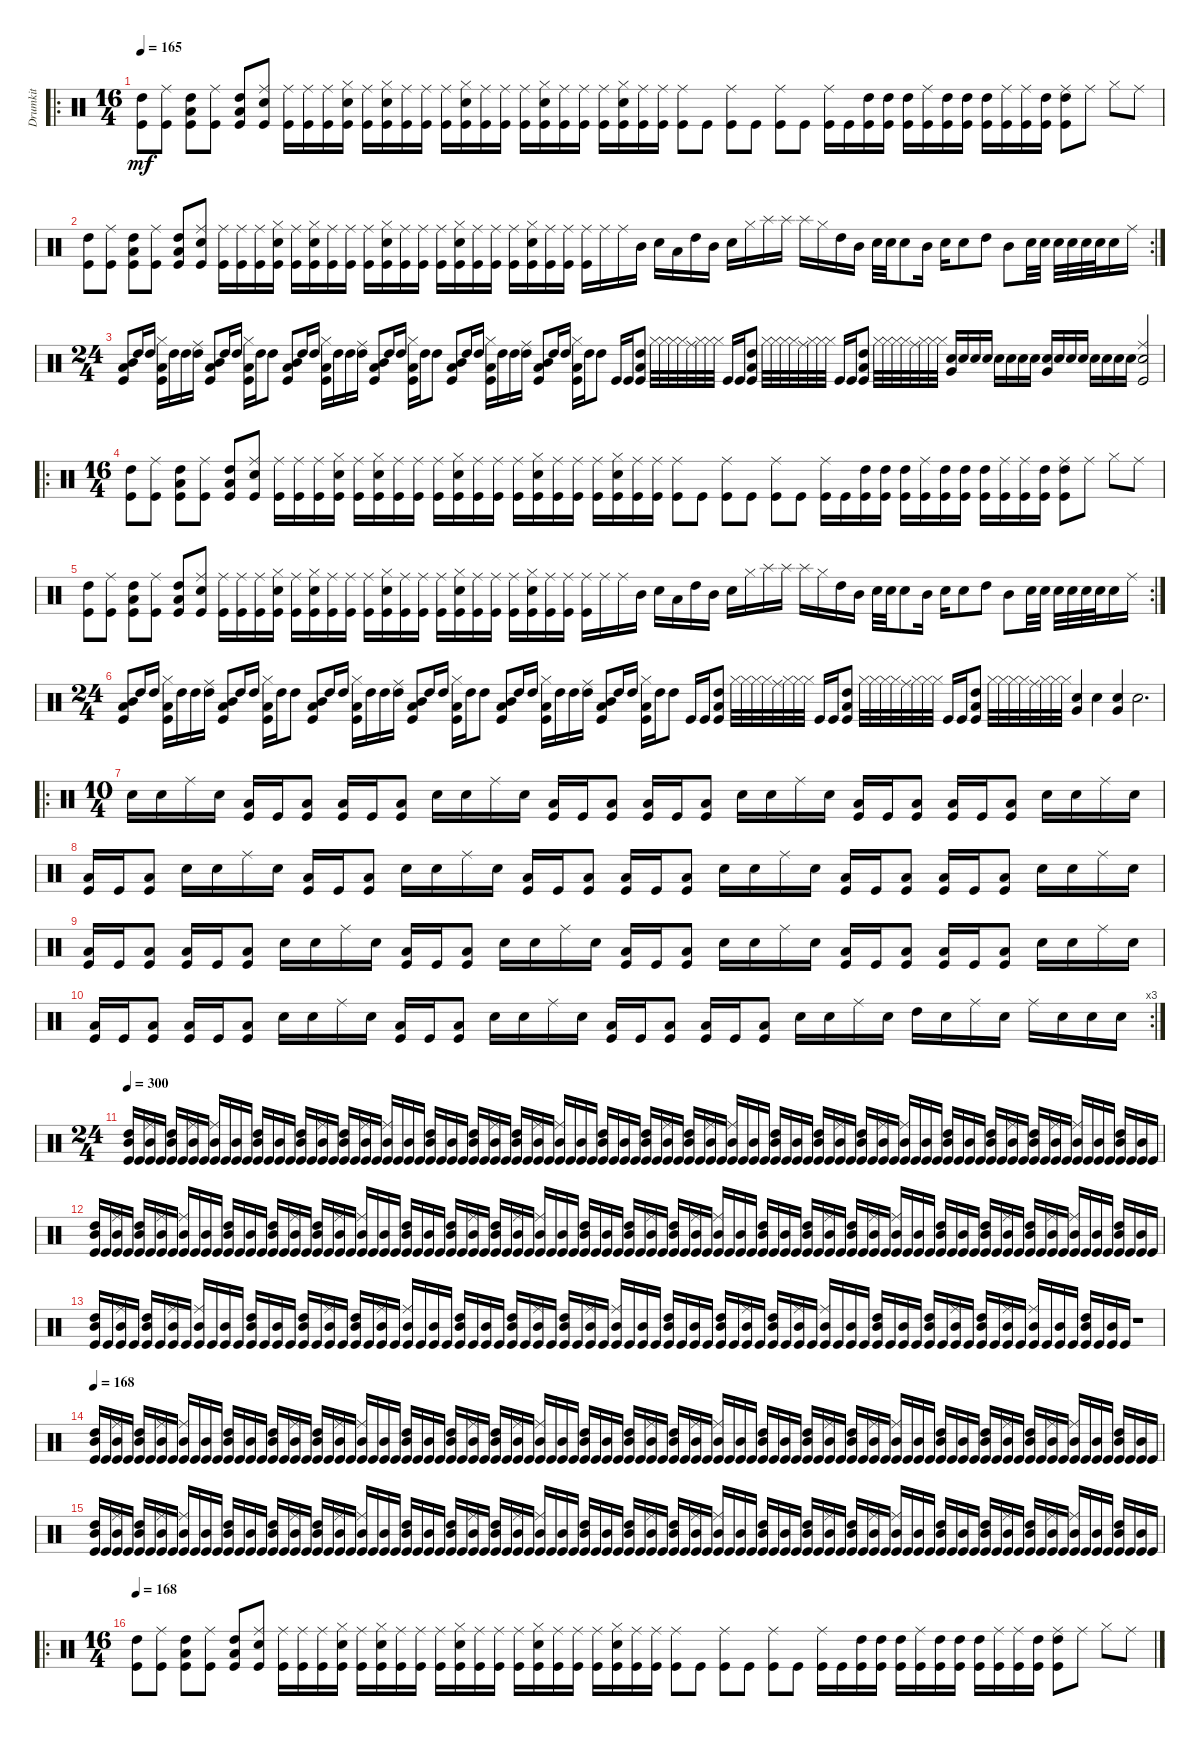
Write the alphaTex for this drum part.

\track ("Drumkit" "Drumkit") {instrument percussion}
\staff {score}
\articulation defaults
\ro
\ts (16 4)
\tempo 165
\clef neutral
\ks c
("Kick (hit)" "High Tom (hit)").8{dy mf} ("Kick (hit)" "Ride (middle)").8 ("Kick (hit)" "Low Tom (hit)" "High Tom (hit)").8 ("Kick (hit)" "Ride (middle)").8 ("Kick (hit)" "High Tom (hit)" "Low Tom (hit)").8 ("Kick (hit)" "Ride (middle)" "Snare (hit) 2").8 ("Kick (hit)" "Ride (middle)").16 ("Kick (hit)" "Ride (middle)").16 ("Kick (hit)" "Ride (middle)").16 ("Kick (hit)" "Snare (hit) 2" "Hi-Hat (closed)").16 ("Kick (hit)" "Ride (middle)").16 ("Kick (hit)" "Hi-Hat (closed)" "Snare (hit) 2").16 ("Kick (hit)" "Ride (middle)").16 ("Kick (hit)" "Ride (middle)").16 ("Kick (hit)" "Ride (middle)").16 ("Kick (hit)" "Snare (hit) 2" "Hi-Hat (closed)").16 ("Kick (hit)" "Ride (middle)").16 ("Kick (hit)" "Ride (middle)").16 ("Kick (hit)" "Ride (middle)").16 ("Kick (hit)" "Hi-Hat (closed)" "Snare (hit) 2").16 ("Kick (hit)" "Ride (middle)").16 ("Kick (hit)" "Ride (middle)").16 ("Kick (hit)" "Ride (middle)").16 ("Kick (hit)" "Hi-Hat (closed)" "Snare (hit) 2").16 ("Kick (hit)" "Ride (middle)").16 ("Kick (hit)" "Ride (middle)").16 ("Kick (hit)" "Ride (middle)").8 "Kick (hit)".8 ("Kick (hit)" "Ride (middle)").8 "Kick (hit)".8 ("Kick (hit)" "Ride (middle)").8 "Kick (hit)".8 ("Kick (hit)" "Ride (middle)").16 "Kick (hit)".16 ("Kick (hit)" "High Tom (hit)").16 ("Kick (hit)" "High Tom (hit)").16 ("Kick (hit)" "High Tom (hit)").16 ("Kick (hit)" "Ride (middle)").16 ("Kick (hit)" "High Tom (hit)").16 ("Kick (hit)" "High Tom (hit)").16 ("Kick (hit)" "High Tom (hit)").16 ("Kick (hit)" "Ride (middle)").16 ("Kick (hit)" "Ride (middle)").16 ("Kick (hit)" "High Tom (hit)").16 ("Kick (hit)" "High Tom (hit)" "Ride (middle)").8 "Ride (middle)".8 "Hi-Hat (closed)".8 "Ride (middle)".8 |
\rc 2
("Kick (hit)" "High Tom (hit)").8 ("Kick (hit)" "Ride (middle)").8 ("Kick (hit)" "Low Tom (hit)" "High Tom (hit)").8 ("Kick (hit)" "Ride (middle)").8 ("Kick (hit)" "High Tom (hit)" "Low Tom (hit)").8 ("Kick (hit)" "Ride (middle)" "Snare (hit) 2").8 ("Kick (hit)" "Ride (middle)").16 ("Kick (hit)" "Ride (middle)").16 ("Kick (hit)" "Ride (middle)").16 ("Kick (hit)" "Snare (hit) 2" "Hi-Hat (closed)").16 ("Kick (hit)" "Ride (middle)").16 ("Kick (hit)" "Hi-Hat (closed)" "Snare (hit) 2").16 ("Kick (hit)" "Ride (middle)").16 ("Kick (hit)" "Ride (middle)").16 ("Kick (hit)" "Ride (middle)").16 ("Kick (hit)" "Snare (hit) 2" "Hi-Hat (closed)").16 ("Kick (hit)" "Ride (middle)").16 ("Kick (hit)" "Ride (middle)").16 ("Kick (hit)" "Ride (middle)").16 ("Kick (hit)" "Hi-Hat (closed)" "Snare (hit) 2").16 ("Kick (hit)" "Ride (middle)").16 ("Kick (hit)" "Ride (middle)").16 ("Kick (hit)" "Ride (middle)").16 ("Kick (hit)" "Hi-Hat (closed)" "Snare (hit) 2").16 ("Kick (hit)" "Ride (middle)").16 ("Kick (hit)" "Ride (middle)").16 ("Kick (hit)" "Ride (middle)").16 "Ride (middle)".16 "Ride (middle)".16 "Mid Tom (hit)".16 "Snare (hit) 2".16 "Low Tom (hit)".16 "High Tom (hit)".16 "Mid Tom (hit)".16 "Snare (hit) 2".16 "Hi-Hat (closed)".16 "Splash (hit)".16 "Splash (hit)".16 "Splash (hit)".16 "Hi-Hat (closed)".16 "High Tom (hit)".16 "Mid Tom (hit)".16 "Snare (hit) 2".32 "Snare (hit) 2".32 "Snare (hit) 2".8 "Mid Tom (hit)".16 "Snare (hit) 2".16 "Snare (hit) 2".8 "High Tom (hit)".8 "Mid Tom (hit)".8 "Snare (hit) 2".32 "Snare (hit) 2".32 "Snare (hit) 2".32 "Snare (hit) 2".32 "Snare (hit) 2".32 "Snare (hit) 2".32 "Snare (hit) 2".16 "Ride (middle)".16 |
\ts (24 4)
("Kick (hit)" "Mid Tom (hit)" "Low Tom (hit)").8 "High Tom (hit)".16 "High Tom (hit)".16 ("Hi-Hat (closed)" "Low Tom (hit)" "Kick (hit)").16 "High Tom (hit)".16 "High Tom (hit)".16 ("High Tom (hit)" "Ride (middle)").16 ("Kick (hit)" "Mid Tom (hit)" "Low Tom (hit)").8 "High Tom (hit)".16 "High Tom (hit)".16 ("Hi-Hat (closed)" "Low Tom (hit)" "Kick (hit)").16 "High Tom (hit)".16 "High Tom (hit)".8 ("Kick (hit)" "Mid Tom (hit)" "Low Tom (hit)").8 "High Tom (hit)".16 "High Tom (hit)".16 ("Hi-Hat (closed)" "Low Tom (hit)" "Kick (hit)").16 "High Tom (hit)".16 "High Tom (hit)".16 ("High Tom (hit)" "Ride (middle)").16 ("Kick (hit)" "Mid Tom (hit)" "Low Tom (hit)").8 "High Tom (hit)".16 "High Tom (hit)".16 ("Hi-Hat (closed)" "Low Tom (hit)" "Kick (hit)").16 "High Tom (hit)".16 "High Tom (hit)".8 ("Kick (hit)" "Mid Tom (hit)" "Low Tom (hit)").8 "High Tom (hit)".16 "High Tom (hit)".16 ("Hi-Hat (closed)" "Low Tom (hit)" "Kick (hit)").16 "High Tom (hit)".16 "High Tom (hit)".16 ("High Tom (hit)" "Ride (middle)").16 ("Kick (hit)" "Mid Tom (hit)" "Low Tom (hit)").8 "High Tom (hit)".16 "High Tom (hit)".16 ("Hi-Hat (closed)" "Low Tom (hit)" "Kick (hit)").16 "High Tom (hit)".16 "High Tom (hit)".8 "Kick (hit)".16 "Kick (hit)".16 ("Kick (hit)" "Low Tom (hit)" "High Tom (hit)").8 "Hi-Hat (closed)".32 "Hi-Hat (closed)".32 "Hi-Hat (closed)".32 "Hi-Hat (closed)".32 "Ride (middle)".32 "Hi-Hat (closed)".32 "Hi-Hat (closed)".32 "Hi-Hat (closed)".32 "Kick (hit)".16 "Kick (hit)".16 ("Kick (hit)" "High Tom (hit)" "Low Tom (hit)").8 "Hi-Hat (closed)".32 "Hi-Hat (closed)".32 "Hi-Hat (closed)".32 "Hi-Hat (closed)".32 "Ride (middle)".32 "Hi-Hat (closed)".32 "Hi-Hat (closed)".32 "Hi-Hat (closed)".32 "Kick (hit)".16 "Kick (hit)".16 ("Kick (hit)" "Low Tom (hit)" "High Tom (hit)").8 "Hi-Hat (closed)".32 "Hi-Hat (closed)".32 "Hi-Hat (closed)".32 "Hi-Hat (closed)".32 "Ride (middle)".32 "Hi-Hat (closed)".32 "Hi-Hat (closed)".32 "Hi-Hat (closed)".32 ("Snare (hit) 2" "Very Low Tom (hit)").16 "Snare (hit) 2".16 "Snare (hit) 2".16 "Snare (hit) 2".16 "Snare (hit) 2".16 "Snare (hit) 2".16 "Snare (hit) 2".16 "Snare (hit) 2".16 ("Snare (hit) 2" "Very Low Tom (hit)").16 "Snare (hit) 2".16 "Snare (hit) 2".16 "Snare (hit) 2".16 "Snare (hit) 2".16 "Snare (hit) 2".16 "Snare (hit) 2".16 "Snare (hit) 2".16 ("Snare (hit) 2" "Kick (hit)" "Ride (middle)").2 |
\ro
\ts (16 4)
("Kick (hit)" "High Tom (hit)").8 ("Kick (hit)" "Ride (middle)").8 ("Kick (hit)" "Low Tom (hit)" "High Tom (hit)").8 ("Kick (hit)" "Ride (middle)").8 ("Kick (hit)" "High Tom (hit)" "Low Tom (hit)").8 ("Kick (hit)" "Ride (middle)" "Snare (hit) 2").8 ("Kick (hit)" "Ride (middle)").16 ("Kick (hit)" "Ride (middle)").16 ("Kick (hit)" "Ride (middle)").16 ("Kick (hit)" "Snare (hit) 2" "Hi-Hat (closed)").16 ("Kick (hit)" "Ride (middle)").16 ("Kick (hit)" "Hi-Hat (closed)" "Snare (hit) 2").16 ("Kick (hit)" "Ride (middle)").16 ("Kick (hit)" "Ride (middle)").16 ("Kick (hit)" "Ride (middle)").16 ("Kick (hit)" "Snare (hit) 2" "Hi-Hat (closed)").16 ("Kick (hit)" "Ride (middle)").16 ("Kick (hit)" "Ride (middle)").16 ("Kick (hit)" "Ride (middle)").16 ("Kick (hit)" "Hi-Hat (closed)" "Snare (hit) 2").16 ("Kick (hit)" "Ride (middle)").16 ("Kick (hit)" "Ride (middle)").16 ("Kick (hit)" "Ride (middle)").16 ("Kick (hit)" "Hi-Hat (closed)" "Snare (hit) 2").16 ("Kick (hit)" "Ride (middle)").16 ("Kick (hit)" "Ride (middle)").16 ("Kick (hit)" "Ride (middle)").8 "Kick (hit)".8 ("Kick (hit)" "Ride (middle)").8 "Kick (hit)".8 ("Kick (hit)" "Ride (middle)").8 "Kick (hit)".8 ("Kick (hit)" "Ride (middle)").16 "Kick (hit)".16 ("Kick (hit)" "High Tom (hit)").16 ("Kick (hit)" "High Tom (hit)").16 ("Kick (hit)" "High Tom (hit)").16 ("Kick (hit)" "Ride (middle)").16 ("Kick (hit)" "High Tom (hit)").16 ("Kick (hit)" "High Tom (hit)").16 ("Kick (hit)" "High Tom (hit)").16 ("Kick (hit)" "Ride (middle)").16 ("Kick (hit)" "Ride (middle)").16 ("Kick (hit)" "High Tom (hit)").16 ("Kick (hit)" "High Tom (hit)" "Ride (middle)").8 "Ride (middle)".8 "Hi-Hat (closed)".8 "Ride (middle)".8 |
\rc 2
("Kick (hit)" "High Tom (hit)").8 ("Kick (hit)" "Ride (middle)").8 ("Kick (hit)" "Low Tom (hit)" "High Tom (hit)").8 ("Kick (hit)" "Ride (middle)").8 ("Kick (hit)" "High Tom (hit)" "Low Tom (hit)").8 ("Kick (hit)" "Ride (middle)" "Snare (hit) 2").8 ("Kick (hit)" "Ride (middle)").16 ("Kick (hit)" "Ride (middle)").16 ("Kick (hit)" "Ride (middle)").16 ("Kick (hit)" "Snare (hit) 2" "Hi-Hat (closed)").16 ("Kick (hit)" "Ride (middle)").16 ("Kick (hit)" "Hi-Hat (closed)" "Snare (hit) 2").16 ("Kick (hit)" "Ride (middle)").16 ("Kick (hit)" "Ride (middle)").16 ("Kick (hit)" "Ride (middle)").16 ("Kick (hit)" "Snare (hit) 2" "Hi-Hat (closed)").16 ("Kick (hit)" "Ride (middle)").16 ("Kick (hit)" "Ride (middle)").16 ("Kick (hit)" "Ride (middle)").16 ("Kick (hit)" "Hi-Hat (closed)" "Snare (hit) 2").16 ("Kick (hit)" "Ride (middle)").16 ("Kick (hit)" "Ride (middle)").16 ("Kick (hit)" "Ride (middle)").16 ("Kick (hit)" "Hi-Hat (closed)" "Snare (hit) 2").16 ("Kick (hit)" "Ride (middle)").16 ("Kick (hit)" "Ride (middle)").16 ("Kick (hit)" "Ride (middle)").16 "Ride (middle)".16 "Ride (middle)".16 "Mid Tom (hit)".16 "Snare (hit) 2".16 "Low Tom (hit)".16 "High Tom (hit)".16 "Mid Tom (hit)".16 "Snare (hit) 2".16 "Hi-Hat (closed)".16 "Splash (hit)".16 "Splash (hit)".16 "Splash (hit)".16 "Hi-Hat (closed)".16 "High Tom (hit)".16 "Mid Tom (hit)".16 "Snare (hit) 2".32 "Snare (hit) 2".32 "Snare (hit) 2".8 "Mid Tom (hit)".16 "Snare (hit) 2".16 "Snare (hit) 2".8 "High Tom (hit)".8 "Mid Tom (hit)".8 "Snare (hit) 2".32 "Snare (hit) 2".32 "Snare (hit) 2".32 "Snare (hit) 2".32 "Snare (hit) 2".32 "Snare (hit) 2".32 "Snare (hit) 2".16 "Ride (middle)".16 |
\ts (24 4)
("Kick (hit)" "Mid Tom (hit)" "Low Tom (hit)").8 "High Tom (hit)".16 "High Tom (hit)".16 ("Hi-Hat (closed)" "Low Tom (hit)" "Kick (hit)").16 "High Tom (hit)".16 "High Tom (hit)".16 ("High Tom (hit)" "Ride (middle)").16 ("Kick (hit)" "Mid Tom (hit)" "Low Tom (hit)").8 "High Tom (hit)".16 "High Tom (hit)".16 ("Hi-Hat (closed)" "Low Tom (hit)" "Kick (hit)").16 "High Tom (hit)".16 "High Tom (hit)".8 ("Kick (hit)" "Mid Tom (hit)" "Low Tom (hit)").8 "High Tom (hit)".16 "High Tom (hit)".16 ("Hi-Hat (closed)" "Low Tom (hit)" "Kick (hit)").16 "High Tom (hit)".16 "High Tom (hit)".16 ("High Tom (hit)" "Ride (middle)").16 ("Kick (hit)" "Mid Tom (hit)" "Low Tom (hit)").8 "High Tom (hit)".16 "High Tom (hit)".16 ("Hi-Hat (closed)" "Low Tom (hit)" "Kick (hit)").16 "High Tom (hit)".16 "High Tom (hit)".8 ("Kick (hit)" "Mid Tom (hit)" "Low Tom (hit)").8 "High Tom (hit)".16 "High Tom (hit)".16 ("Hi-Hat (closed)" "Low Tom (hit)" "Kick (hit)").16 "High Tom (hit)".16 "High Tom (hit)".16 ("High Tom (hit)" "Ride (middle)").16 ("Kick (hit)" "Mid Tom (hit)" "Low Tom (hit)").8 "High Tom (hit)".16 "High Tom (hit)".16 ("Hi-Hat (closed)" "Low Tom (hit)" "Kick (hit)").16 "High Tom (hit)".16 "High Tom (hit)".8 "Kick (hit)".16 "Kick (hit)".16 ("Kick (hit)" "Low Tom (hit)" "High Tom (hit)").8 "Hi-Hat (closed)".32 "Hi-Hat (closed)".32 "Hi-Hat (closed)".32 "Hi-Hat (closed)".32 "Ride (middle)".32 "Hi-Hat (closed)".32 "Hi-Hat (closed)".32 "Hi-Hat (closed)".32 "Kick (hit)".16 "Kick (hit)".16 ("Kick (hit)" "High Tom (hit)" "Low Tom (hit)").8 "Hi-Hat (closed)".32 "Hi-Hat (closed)".32 "Hi-Hat (closed)".32 "Hi-Hat (closed)".32 "Ride (middle)".32 "Hi-Hat (closed)".32 "Hi-Hat (closed)".32 "Hi-Hat (closed)".32 "Kick (hit)".16 "Kick (hit)".16 ("Kick (hit)" "High Tom (hit)" "Low Tom (hit)").8 "Hi-Hat (closed)".32 "Hi-Hat (closed)".32 "Hi-Hat (closed)".32 "Hi-Hat (closed)".32 "Ride (middle)".32 "Hi-Hat (closed)".32 "Hi-Hat (closed)".32 "Hi-Hat (closed)".32 ("Snare (hit) 2" "Very Low Tom (hit)").4 "Snare (hit) 2".4 ("Snare (hit) 2" "Very Low Tom (hit)").4 "Snare (hit) 2".2{d} |
\ro
\ts (10 4)
"Snare (hit) 2".16 "Snare (hit) 2".16 "Ride (middle)".16 "Snare (hit) 2".16 ("Kick (hit)" "Low Tom (hit)").16 "Kick (hit)".16 ("Kick (hit)" "Low Tom (hit)").8 ("Kick (hit)" "Low Tom (hit)").16 "Kick (hit)".16 ("Kick (hit)" "Low Tom (hit)").8 "Snare (hit) 2".16 "Snare (hit) 2".16 "Ride (middle)".16 "Snare (hit) 2".16 ("Kick (hit)" "Low Tom (hit)").16 "Kick (hit)".16 ("Kick (hit)" "Low Tom (hit)").8 ("Kick (hit)" "Low Tom (hit)").16 "Kick (hit)".16 ("Kick (hit)" "Low Tom (hit)").8 "Snare (hit) 2".16 "Snare (hit) 2".16 "Ride (middle)".16 "Snare (hit) 2".16 ("Kick (hit)" "Low Tom (hit)").16 "Kick (hit)".16 ("Kick (hit)" "Low Tom (hit)").8 ("Kick (hit)" "Low Tom (hit)").16 "Kick (hit)".16 ("Kick (hit)" "Low Tom (hit)").8 "Snare (hit) 2".16 "Snare (hit) 2".16 "Ride (middle)".16 "Snare (hit) 2".16 |
("Kick (hit)" "Low Tom (hit)").16 "Kick (hit)".16 ("Kick (hit)" "Low Tom (hit)").8 "Snare (hit) 2".16 "Snare (hit) 2".16 "Ride (middle)".16 "Snare (hit) 2".16 ("Kick (hit)" "Low Tom (hit)").16 "Kick (hit)".16 ("Kick (hit)" "Low Tom (hit)").8 "Snare (hit) 2".16 "Snare (hit) 2".16 "Ride (middle)".16 "Snare (hit) 2".16 ("Kick (hit)" "Low Tom (hit)").16 "Kick (hit)".16 ("Kick (hit)" "Low Tom (hit)").8 ("Kick (hit)" "Low Tom (hit)").16 "Kick (hit)".16 ("Kick (hit)" "Low Tom (hit)").8 "Snare (hit) 2".16 "Snare (hit) 2".16 "Ride (middle)".16 "Snare (hit) 2".16 ("Kick (hit)" "Low Tom (hit)").16 "Kick (hit)".16 ("Kick (hit)" "Low Tom (hit)").8 ("Kick (hit)" "Low Tom (hit)").16 "Kick (hit)".16 ("Kick (hit)" "Low Tom (hit)").8 "Snare (hit) 2".16 "Snare (hit) 2".16 "Ride (middle)".16 "Snare (hit) 2".16 |
("Kick (hit)" "Low Tom (hit)").16 "Kick (hit)".16 ("Kick (hit)" "Low Tom (hit)").8 ("Kick (hit)" "Low Tom (hit)").16 "Kick (hit)".16 ("Kick (hit)" "Low Tom (hit)").8 "Snare (hit) 2".16 "Snare (hit) 2".16 "Ride (middle)".16 "Snare (hit) 2".16 ("Kick (hit)" "Low Tom (hit)").16 "Kick (hit)".16 ("Kick (hit)" "Low Tom (hit)").8 "Snare (hit) 2".16 "Snare (hit) 2".16 "Ride (middle)".16 "Snare (hit) 2".16 ("Kick (hit)" "Low Tom (hit)").16 "Kick (hit)".16 ("Kick (hit)" "Low Tom (hit)").8 "Snare (hit) 2".16 "Snare (hit) 2".16 "Ride (middle)".16 "Snare (hit) 2".16 ("Kick (hit)" "Low Tom (hit)").16 "Kick (hit)".16 ("Kick (hit)" "Low Tom (hit)").8 ("Kick (hit)" "Low Tom (hit)").16 "Kick (hit)".16 ("Kick (hit)" "Low Tom (hit)").8 "Snare (hit) 2".16 "Snare (hit) 2".16 "Ride (middle)".16 "Snare (hit) 2".16 |
\rc 3
("Kick (hit)" "Low Tom (hit)").16 "Kick (hit)".16 ("Kick (hit)" "Low Tom (hit)").8 ("Kick (hit)" "Low Tom (hit)").16 "Kick (hit)".16 ("Kick (hit)" "Low Tom (hit)").8 "Snare (hit) 2".16 "Snare (hit) 2".16 "Ride (middle)".16 "Snare (hit) 2".16 ("Kick (hit)" "Low Tom (hit)").16 "Kick (hit)".16 ("Kick (hit)" "Low Tom (hit)").8 "Snare (hit) 2".16 "Snare (hit) 2".16 "Ride (middle)".16 "Snare (hit) 2".16 ("Kick (hit)" "Low Tom (hit)").16 "Kick (hit)".16 ("Kick (hit)" "Low Tom (hit)").8 ("Kick (hit)" "Low Tom (hit)").16 "Kick (hit)".16 ("Kick (hit)" "Low Tom (hit)").8 "Snare (hit) 2".16 "Snare (hit) 2".16 "Ride (middle)".16 "Snare (hit) 2".16 "High Tom (hit)".16 "Snare (hit) 2".16 "Ride (middle)".16 "Snare (hit) 2".16 "Ride (middle)".16 "Snare (hit) 2".16 "Snare (hit) 2".16 "Snare (hit) 2".16 |
\ts (24 4)
\tempo 300
("Kick (hit)" "High Tom (hit)" "Mid Tom (hit)").16 "Kick (hit)".16 ("Kick (hit)" "Mid Tom (hit)" "Ride (middle)").16 "Kick (hit)".16 ("Kick (hit)" "Mid Tom (hit)" "High Tom (hit)").16 "Kick (hit)".16 ("Kick (hit)" "Mid Tom (hit)" "Ride (middle)").16 "Kick (hit)".16 ("Kick (hit)" "Ride (middle)" "Mid Tom (hit)").16 "Kick (hit)".16 ("Kick (hit)" "Mid Tom (hit)").16 "Kick (hit)".16 ("Kick (hit)" "Mid Tom (hit)" "High Tom (hit)").16 "Kick (hit)".16 ("Kick (hit)" "Mid Tom (hit)").16 "Kick (hit)".16 ("Kick (hit)" "High Tom (hit)" "Mid Tom (hit)").16 "Kick (hit)".16 ("Kick (hit)" "Mid Tom (hit)" "Ride (middle)").16 "Kick (hit)".16 ("Kick (hit)" "Mid Tom (hit)" "High Tom (hit)").16 "Kick (hit)".16 ("Kick (hit)" "Mid Tom (hit)" "Ride (middle)").16 "Kick (hit)".16 ("Kick (hit)" "Ride (middle)" "Mid Tom (hit)").16 "Kick (hit)".16 ("Kick (hit)" "Mid Tom (hit)").16 "Kick (hit)".16 ("Kick (hit)" "Mid Tom (hit)" "High Tom (hit)").16 "Kick (hit)".16 ("Kick (hit)" "Mid Tom (hit)").16 "Kick (hit)".16 ("Kick (hit)" "High Tom (hit)" "Mid Tom (hit)").16 "Kick (hit)".16 ("Kick (hit)" "Mid Tom (hit)" "Ride (middle)").16 "Kick (hit)".16 ("Kick (hit)" "Mid Tom (hit)" "High Tom (hit)").16 "Kick (hit)".16 ("Kick (hit)" "Mid Tom (hit)" "Ride (middle)").16 "Kick (hit)".16 ("Kick (hit)" "Ride (middle)" "Mid Tom (hit)").16 "Kick (hit)".16 ("Kick (hit)" "Mid Tom (hit)").16 "Kick (hit)".16 ("Kick (hit)" "Mid Tom (hit)" "High Tom (hit)").16 "Kick (hit)".16 ("Kick (hit)" "Mid Tom (hit)").16 "Kick (hit)".16 ("Kick (hit)" "High Tom (hit)" "Mid Tom (hit)").16 "Kick (hit)".16 ("Kick (hit)" "Mid Tom (hit)" "Ride (middle)").16 "Kick (hit)".16 ("Kick (hit)" "Mid Tom (hit)" "High Tom (hit)").16 "Kick (hit)".16 ("Kick (hit)" "Mid Tom (hit)" "Ride (middle)").16 "Kick (hit)".16 ("Kick (hit)" "Ride (middle)" "Mid Tom (hit)").16 "Kick (hit)".16 ("Kick (hit)" "Mid Tom (hit)").16 "Kick (hit)".16 ("Kick (hit)" "Mid Tom (hit)" "High Tom (hit)").16 "Kick (hit)".16 ("Kick (hit)" "Mid Tom (hit)").16 "Kick (hit)".16 ("Kick (hit)" "High Tom (hit)" "Mid Tom (hit)").16 "Kick (hit)".16 ("Kick (hit)" "Mid Tom (hit)" "Ride (middle)").16 "Kick (hit)".16 ("Kick (hit)" "Mid Tom (hit)" "High Tom (hit)").16 "Kick (hit)".16 ("Kick (hit)" "Mid Tom (hit)" "Ride (middle)").16 "Kick (hit)".16 ("Kick (hit)" "Ride (middle)" "Mid Tom (hit)").16 "Kick (hit)".16 ("Kick (hit)" "Mid Tom (hit)").16 "Kick (hit)".16 ("Kick (hit)" "Mid Tom (hit)" "High Tom (hit)").16 "Kick (hit)".16 ("Kick (hit)" "Mid Tom (hit)").16 "Kick (hit)".16 ("Kick (hit)" "High Tom (hit)" "Mid Tom (hit)").16 "Kick (hit)".16 ("Kick (hit)" "Mid Tom (hit)" "Ride (middle)").16 "Kick (hit)".16 ("Kick (hit)" "Mid Tom (hit)" "High Tom (hit)").16 "Kick (hit)".16 ("Kick (hit)" "Mid Tom (hit)" "Ride (middle)").16 "Kick (hit)".16 ("Kick (hit)" "Ride (middle)" "Mid Tom (hit)").16 "Kick (hit)".16 ("Kick (hit)" "Mid Tom (hit)").16 "Kick (hit)".16 ("Kick (hit)" "Mid Tom (hit)" "High Tom (hit)").16 "Kick (hit)".16 ("Kick (hit)" "Mid Tom (hit)").16 "Kick (hit)".16 |
("Kick (hit)" "High Tom (hit)" "Mid Tom (hit)").16 "Kick (hit)".16 ("Kick (hit)" "Mid Tom (hit)" "Ride (middle)").16 "Kick (hit)".16 ("Kick (hit)" "Mid Tom (hit)" "High Tom (hit)").16 "Kick (hit)".16 ("Kick (hit)" "Mid Tom (hit)" "Ride (middle)").16 "Kick (hit)".16 ("Kick (hit)" "Ride (middle)" "Mid Tom (hit)").16 "Kick (hit)".16 ("Kick (hit)" "Mid Tom (hit)").16 "Kick (hit)".16 ("Kick (hit)" "Mid Tom (hit)" "High Tom (hit)").16 "Kick (hit)".16 ("Kick (hit)" "Mid Tom (hit)").16 "Kick (hit)".16 ("Kick (hit)" "High Tom (hit)" "Mid Tom (hit)").16 "Kick (hit)".16 ("Kick (hit)" "Mid Tom (hit)" "Ride (middle)").16 "Kick (hit)".16 ("Kick (hit)" "Mid Tom (hit)" "High Tom (hit)").16 "Kick (hit)".16 ("Kick (hit)" "Mid Tom (hit)" "Ride (middle)").16 "Kick (hit)".16 ("Kick (hit)" "Ride (middle)" "Mid Tom (hit)").16 "Kick (hit)".16 ("Kick (hit)" "Mid Tom (hit)").16 "Kick (hit)".16 ("Kick (hit)" "Mid Tom (hit)" "High Tom (hit)").16 "Kick (hit)".16 ("Kick (hit)" "Mid Tom (hit)").16 "Kick (hit)".16 ("Kick (hit)" "High Tom (hit)" "Mid Tom (hit)").16 "Kick (hit)".16 ("Kick (hit)" "Mid Tom (hit)" "Ride (middle)").16 "Kick (hit)".16 ("Kick (hit)" "Mid Tom (hit)" "High Tom (hit)").16 "Kick (hit)".16 ("Kick (hit)" "Mid Tom (hit)" "Ride (middle)").16 "Kick (hit)".16 ("Kick (hit)" "Ride (middle)" "Mid Tom (hit)").16 "Kick (hit)".16 ("Kick (hit)" "Mid Tom (hit)").16 "Kick (hit)".16 ("Kick (hit)" "Mid Tom (hit)" "High Tom (hit)").16 "Kick (hit)".16 ("Kick (hit)" "Mid Tom (hit)").16 "Kick (hit)".16 ("Kick (hit)" "High Tom (hit)" "Mid Tom (hit)").16 "Kick (hit)".16 ("Kick (hit)" "Mid Tom (hit)" "Ride (middle)").16 "Kick (hit)".16 ("Kick (hit)" "Mid Tom (hit)" "High Tom (hit)").16 "Kick (hit)".16 ("Kick (hit)" "Mid Tom (hit)" "Ride (middle)").16 "Kick (hit)".16 ("Kick (hit)" "Ride (middle)" "Mid Tom (hit)").16 "Kick (hit)".16 ("Kick (hit)" "Mid Tom (hit)").16 "Kick (hit)".16 ("Kick (hit)" "Mid Tom (hit)" "High Tom (hit)").16 "Kick (hit)".16 ("Kick (hit)" "Mid Tom (hit)").16 "Kick (hit)".16 ("Kick (hit)" "High Tom (hit)" "Mid Tom (hit)").16 "Kick (hit)".16 ("Kick (hit)" "Mid Tom (hit)" "Ride (middle)").16 "Kick (hit)".16 ("Kick (hit)" "Mid Tom (hit)" "High Tom (hit)").16 "Kick (hit)".16 ("Kick (hit)" "Mid Tom (hit)" "Ride (middle)").16 "Kick (hit)".16 ("Kick (hit)" "Ride (middle)" "Mid Tom (hit)").16 "Kick (hit)".16 ("Kick (hit)" "Mid Tom (hit)").16 "Kick (hit)".16 ("Kick (hit)" "Mid Tom (hit)" "High Tom (hit)").16 "Kick (hit)".16 ("Kick (hit)" "Mid Tom (hit)").16 "Kick (hit)".16 ("Kick (hit)" "High Tom (hit)" "Mid Tom (hit)").16 "Kick (hit)".16 ("Kick (hit)" "Mid Tom (hit)" "Ride (middle)").16 "Kick (hit)".16 ("Kick (hit)" "Mid Tom (hit)" "High Tom (hit)").16 "Kick (hit)".16 ("Kick (hit)" "Mid Tom (hit)" "Ride (middle)").16 "Kick (hit)".16 ("Kick (hit)" "Ride (middle)" "Mid Tom (hit)").16 "Kick (hit)".16 ("Kick (hit)" "Mid Tom (hit)").16 "Kick (hit)".16 ("Kick (hit)" "Mid Tom (hit)" "High Tom (hit)").16 "Kick (hit)".16 ("Kick (hit)" "Mid Tom (hit)").16 "Kick (hit)".16 |
("Kick (hit)" "High Tom (hit)" "Mid Tom (hit)").16 "Kick (hit)".16 ("Kick (hit)" "Mid Tom (hit)" "Ride (middle)").16 "Kick (hit)".16 ("Kick (hit)" "Mid Tom (hit)" "High Tom (hit)").16 "Kick (hit)".16 ("Kick (hit)" "Mid Tom (hit)" "Ride (middle)").16 "Kick (hit)".16 ("Kick (hit)" "Ride (middle)" "Mid Tom (hit)").16 "Kick (hit)".16 ("Kick (hit)" "Mid Tom (hit)").16 "Kick (hit)".16 ("Kick (hit)" "Mid Tom (hit)" "High Tom (hit)").16 "Kick (hit)".16 ("Kick (hit)" "Mid Tom (hit)").16 "Kick (hit)".16 ("Kick (hit)" "High Tom (hit)" "Mid Tom (hit)").16 "Kick (hit)".16 ("Kick (hit)" "Mid Tom (hit)" "Ride (middle)").16 "Kick (hit)".16 ("Kick (hit)" "Mid Tom (hit)" "High Tom (hit)").16 "Kick (hit)".16 ("Kick (hit)" "Mid Tom (hit)" "Ride (middle)").16 "Kick (hit)".16 ("Kick (hit)" "Ride (middle)" "Mid Tom (hit)").16 "Kick (hit)".16 ("Kick (hit)" "Mid Tom (hit)").16 "Kick (hit)".16 ("Kick (hit)" "Mid Tom (hit)" "High Tom (hit)").16 "Kick (hit)".16 ("Kick (hit)" "Mid Tom (hit)").16 "Kick (hit)".16 ("Kick (hit)" "High Tom (hit)" "Mid Tom (hit)").16 "Kick (hit)".16 ("Kick (hit)" "Mid Tom (hit)" "Ride (middle)").16 "Kick (hit)".16 ("Kick (hit)" "Mid Tom (hit)" "High Tom (hit)").16 "Kick (hit)".16 ("Kick (hit)" "Mid Tom (hit)" "Ride (middle)").16 "Kick (hit)".16 ("Kick (hit)" "Ride (middle)" "Mid Tom (hit)").16 "Kick (hit)".16 ("Kick (hit)" "Mid Tom (hit)").16 "Kick (hit)".16 ("Kick (hit)" "Mid Tom (hit)" "High Tom (hit)").16 "Kick (hit)".16 ("Kick (hit)" "Mid Tom (hit)").16 "Kick (hit)".16 ("Kick (hit)" "High Tom (hit)" "Mid Tom (hit)").16 "Kick (hit)".16 ("Kick (hit)" "Mid Tom (hit)" "Ride (middle)").16 "Kick (hit)".16 ("Kick (hit)" "Mid Tom (hit)" "High Tom (hit)").16 "Kick (hit)".16 ("Kick (hit)" "Mid Tom (hit)" "Ride (middle)").16 "Kick (hit)".16 ("Kick (hit)" "Ride (middle)" "Mid Tom (hit)").16 "Kick (hit)".16 ("Kick (hit)" "Mid Tom (hit)").16 "Kick (hit)".16 ("Kick (hit)" "Mid Tom (hit)" "High Tom (hit)").16 "Kick (hit)".16 ("Kick (hit)" "Mid Tom (hit)").16 "Kick (hit)".16 ("Kick (hit)" "High Tom (hit)" "Mid Tom (hit)").16 "Kick (hit)".16 ("Kick (hit)" "Mid Tom (hit)" "Ride (middle)").16 "Kick (hit)".16 ("Kick (hit)" "Mid Tom (hit)" "High Tom (hit)").16 "Kick (hit)".16 ("Kick (hit)" "Mid Tom (hit)" "Ride (middle)").16 "Kick (hit)".16 ("Kick (hit)" "Ride (middle)" "Mid Tom (hit)").16 "Kick (hit)".16 ("Kick (hit)" "Mid Tom (hit)").16 "Kick (hit)".16 ("Kick (hit)" "Mid Tom (hit)" "High Tom (hit)").16 "Kick (hit)".16 ("Kick (hit)" "Mid Tom (hit)").16 "Kick (hit)".16 r.1 |
\tempo 168
("Kick (hit)" "High Tom (hit)" "Mid Tom (hit)").16 "Kick (hit)".16 ("Kick (hit)" "Mid Tom (hit)" "Ride (middle)").16 "Kick (hit)".16 ("Kick (hit)" "Mid Tom (hit)" "High Tom (hit)").16 "Kick (hit)".16 ("Kick (hit)" "Mid Tom (hit)" "Ride (middle)").16 "Kick (hit)".16 ("Kick (hit)" "Ride (middle)" "Mid Tom (hit)").16 "Kick (hit)".16 ("Kick (hit)" "Mid Tom (hit)").16 "Kick (hit)".16 ("Kick (hit)" "Mid Tom (hit)" "High Tom (hit)").16 "Kick (hit)".16 ("Kick (hit)" "Mid Tom (hit)").16 "Kick (hit)".16 ("Kick (hit)" "High Tom (hit)" "Mid Tom (hit)").16 "Kick (hit)".16 ("Kick (hit)" "Mid Tom (hit)" "Ride (middle)").16 "Kick (hit)".16 ("Kick (hit)" "Mid Tom (hit)" "High Tom (hit)").16 "Kick (hit)".16 ("Kick (hit)" "Mid Tom (hit)" "Ride (middle)").16 "Kick (hit)".16 ("Kick (hit)" "Ride (middle)" "Mid Tom (hit)").16 "Kick (hit)".16 ("Kick (hit)" "Mid Tom (hit)").16 "Kick (hit)".16 ("Kick (hit)" "Mid Tom (hit)" "High Tom (hit)").16 "Kick (hit)".16 ("Kick (hit)" "Mid Tom (hit)").16 "Kick (hit)".16 ("Kick (hit)" "High Tom (hit)" "Mid Tom (hit)").16 "Kick (hit)".16 ("Kick (hit)" "Mid Tom (hit)" "Ride (middle)").16 "Kick (hit)".16 ("Kick (hit)" "Mid Tom (hit)" "High Tom (hit)").16 "Kick (hit)".16 ("Kick (hit)" "Mid Tom (hit)" "Ride (middle)").16 "Kick (hit)".16 ("Kick (hit)" "Ride (middle)" "Mid Tom (hit)").16 "Kick (hit)".16 ("Kick (hit)" "Mid Tom (hit)").16 "Kick (hit)".16 ("Kick (hit)" "Mid Tom (hit)" "High Tom (hit)").16 "Kick (hit)".16 ("Kick (hit)" "Mid Tom (hit)").16 "Kick (hit)".16 ("Kick (hit)" "High Tom (hit)" "Mid Tom (hit)").16 "Kick (hit)".16 ("Kick (hit)" "Mid Tom (hit)" "Ride (middle)").16 "Kick (hit)".16 ("Kick (hit)" "Mid Tom (hit)" "High Tom (hit)").16 "Kick (hit)".16 ("Kick (hit)" "Mid Tom (hit)" "Ride (middle)").16 "Kick (hit)".16 ("Kick (hit)" "Ride (middle)" "Mid Tom (hit)").16 "Kick (hit)".16 ("Kick (hit)" "Mid Tom (hit)").16 "Kick (hit)".16 ("Kick (hit)" "Mid Tom (hit)" "High Tom (hit)").16 "Kick (hit)".16 ("Kick (hit)" "Mid Tom (hit)").16 "Kick (hit)".16 ("Kick (hit)" "High Tom (hit)" "Mid Tom (hit)").16 "Kick (hit)".16 ("Kick (hit)" "Mid Tom (hit)" "Ride (middle)").16 "Kick (hit)".16 ("Kick (hit)" "Mid Tom (hit)" "High Tom (hit)").16 "Kick (hit)".16 ("Kick (hit)" "Mid Tom (hit)" "Ride (middle)").16 "Kick (hit)".16 ("Kick (hit)" "Ride (middle)" "Mid Tom (hit)").16 "Kick (hit)".16 ("Kick (hit)" "Mid Tom (hit)").16 "Kick (hit)".16 ("Kick (hit)" "Mid Tom (hit)" "High Tom (hit)").16 "Kick (hit)".16 ("Kick (hit)" "Mid Tom (hit)").16 "Kick (hit)".16 ("Kick (hit)" "High Tom (hit)" "Mid Tom (hit)").16 "Kick (hit)".16 ("Kick (hit)" "Mid Tom (hit)" "Ride (middle)").16 "Kick (hit)".16 ("Kick (hit)" "Mid Tom (hit)" "High Tom (hit)").16 "Kick (hit)".16 ("Kick (hit)" "Mid Tom (hit)" "Ride (middle)").16 "Kick (hit)".16 ("Kick (hit)" "Ride (middle)" "Mid Tom (hit)").16 "Kick (hit)".16 ("Kick (hit)" "Mid Tom (hit)").16 "Kick (hit)".16 ("Kick (hit)" "Mid Tom (hit)" "High Tom (hit)").16 "Kick (hit)".16 ("Kick (hit)" "Mid Tom (hit)").16 "Kick (hit)".16 |
("Kick (hit)" "High Tom (hit)" "Mid Tom (hit)").16 "Kick (hit)".16 ("Kick (hit)" "Mid Tom (hit)" "Ride (middle)").16 "Kick (hit)".16 ("Kick (hit)" "Mid Tom (hit)" "High Tom (hit)").16 "Kick (hit)".16 ("Kick (hit)" "Mid Tom (hit)" "Ride (middle)").16 "Kick (hit)".16 ("Kick (hit)" "Ride (middle)" "Mid Tom (hit)").16 "Kick (hit)".16 ("Kick (hit)" "Mid Tom (hit)").16 "Kick (hit)".16 ("Kick (hit)" "Mid Tom (hit)" "High Tom (hit)").16 "Kick (hit)".16 ("Kick (hit)" "Mid Tom (hit)").16 "Kick (hit)".16 ("Kick (hit)" "High Tom (hit)" "Mid Tom (hit)").16 "Kick (hit)".16 ("Kick (hit)" "Mid Tom (hit)" "Ride (middle)").16 "Kick (hit)".16 ("Kick (hit)" "Mid Tom (hit)" "High Tom (hit)").16 "Kick (hit)".16 ("Kick (hit)" "Mid Tom (hit)" "Ride (middle)").16 "Kick (hit)".16 ("Kick (hit)" "Ride (middle)" "Mid Tom (hit)").16 "Kick (hit)".16 ("Kick (hit)" "Mid Tom (hit)").16 "Kick (hit)".16 ("Kick (hit)" "Mid Tom (hit)" "High Tom (hit)").16 "Kick (hit)".16 ("Kick (hit)" "Mid Tom (hit)").16 "Kick (hit)".16 ("Kick (hit)" "High Tom (hit)" "Mid Tom (hit)").16 "Kick (hit)".16 ("Kick (hit)" "Mid Tom (hit)" "Ride (middle)").16 "Kick (hit)".16 ("Kick (hit)" "Mid Tom (hit)" "High Tom (hit)").16 "Kick (hit)".16 ("Kick (hit)" "Mid Tom (hit)" "Ride (middle)").16 "Kick (hit)".16 ("Kick (hit)" "Ride (middle)" "Mid Tom (hit)").16 "Kick (hit)".16 ("Kick (hit)" "Mid Tom (hit)").16 "Kick (hit)".16 ("Kick (hit)" "Mid Tom (hit)" "High Tom (hit)").16 "Kick (hit)".16 ("Kick (hit)" "Mid Tom (hit)").16 "Kick (hit)".16 ("Kick (hit)" "High Tom (hit)" "Mid Tom (hit)").16 "Kick (hit)".16 ("Kick (hit)" "Mid Tom (hit)" "Ride (middle)").16 "Kick (hit)".16 ("Kick (hit)" "Mid Tom (hit)" "High Tom (hit)").16 "Kick (hit)".16 ("Kick (hit)" "Mid Tom (hit)" "Ride (middle)").16 "Kick (hit)".16 ("Kick (hit)" "Ride (middle)" "Mid Tom (hit)").16 "Kick (hit)".16 ("Kick (hit)" "Mid Tom (hit)").16 "Kick (hit)".16 ("Kick (hit)" "Mid Tom (hit)" "High Tom (hit)").16 "Kick (hit)".16 ("Kick (hit)" "Mid Tom (hit)").16 "Kick (hit)".16 ("Kick (hit)" "High Tom (hit)" "Mid Tom (hit)").16 "Kick (hit)".16 ("Kick (hit)" "Mid Tom (hit)" "Ride (middle)").16 "Kick (hit)".16 ("Kick (hit)" "Mid Tom (hit)" "High Tom (hit)").16 "Kick (hit)".16 ("Kick (hit)" "Mid Tom (hit)" "Ride (middle)").16 "Kick (hit)".16 ("Kick (hit)" "Ride (middle)" "Mid Tom (hit)").16 "Kick (hit)".16 ("Kick (hit)" "Mid Tom (hit)").16 "Kick (hit)".16 ("Kick (hit)" "Mid Tom (hit)" "High Tom (hit)").16 "Kick (hit)".16 ("Kick (hit)" "Mid Tom (hit)").16 "Kick (hit)".16 ("Kick (hit)" "High Tom (hit)" "Mid Tom (hit)").16 "Kick (hit)".16 ("Kick (hit)" "Mid Tom (hit)" "Ride (middle)").16 "Kick (hit)".16 ("Kick (hit)" "Mid Tom (hit)" "High Tom (hit)").16 "Kick (hit)".16 ("Kick (hit)" "Mid Tom (hit)" "Ride (middle)").16 "Kick (hit)".16 ("Kick (hit)" "Ride (middle)" "Mid Tom (hit)").16 "Kick (hit)".16 ("Kick (hit)" "Mid Tom (hit)").16 "Kick (hit)".16 ("Kick (hit)" "Mid Tom (hit)" "High Tom (hit)").16 "Kick (hit)".16 ("Kick (hit)" "Mid Tom (hit)").16 "Kick (hit)".16 |
\ro
\ts (16 4)
\tempo 168
("Kick (hit)" "High Tom (hit)").8 ("Kick (hit)" "Ride (middle)").8 ("Kick (hit)" "Low Tom (hit)" "High Tom (hit)").8 ("Kick (hit)" "Ride (middle)").8 ("Kick (hit)" "High Tom (hit)" "Low Tom (hit)").8 ("Kick (hit)" "Ride (middle)" "Snare (hit) 2").8 ("Kick (hit)" "Ride (middle)").16 ("Kick (hit)" "Ride (middle)").16 ("Kick (hit)" "Ride (middle)").16 ("Kick (hit)" "Snare (hit) 2" "Hi-Hat (closed)").16 ("Kick (hit)" "Ride (middle)").16 ("Kick (hit)" "Hi-Hat (closed)" "Snare (hit) 2").16 ("Kick (hit)" "Ride (middle)").16 ("Kick (hit)" "Ride (middle)").16 ("Kick (hit)" "Ride (middle)").16 ("Kick (hit)" "Snare (hit) 2" "Hi-Hat (closed)").16 ("Kick (hit)" "Ride (middle)").16 ("Kick (hit)" "Ride (middle)").16 ("Kick (hit)" "Ride (middle)").16 ("Kick (hit)" "Hi-Hat (closed)" "Snare (hit) 2").16 ("Kick (hit)" "Ride (middle)").16 ("Kick (hit)" "Ride (middle)").16 ("Kick (hit)" "Ride (middle)").16 ("Kick (hit)" "Hi-Hat (closed)" "Snare (hit) 2").16 ("Kick (hit)" "Ride (middle)").16 ("Kick (hit)" "Ride (middle)").16 ("Kick (hit)" "Ride (middle)").8 "Kick (hit)".8 ("Kick (hit)" "Ride (middle)").8 "Kick (hit)".8 ("Kick (hit)" "Ride (middle)").8 "Kick (hit)".8 ("Kick (hit)" "Ride (middle)").16 "Kick (hit)".16 ("Kick (hit)" "High Tom (hit)").16 ("Kick (hit)" "High Tom (hit)").16 ("Kick (hit)" "High Tom (hit)").16 ("Kick (hit)" "Ride (middle)").16 ("Kick (hit)" "High Tom (hit)").16 ("Kick (hit)" "High Tom (hit)").16 ("Kick (hit)" "High Tom (hit)").16 ("Kick (hit)" "Ride (middle)").16 ("Kick (hit)" "Ride (middle)").16 ("Kick (hit)" "High Tom (hit)").16 ("Kick (hit)" "High Tom (hit)" "Ride (middle)").8 "Ride (middle)".8 "Hi-Hat (closed)".8 "Ride (middle)".8
